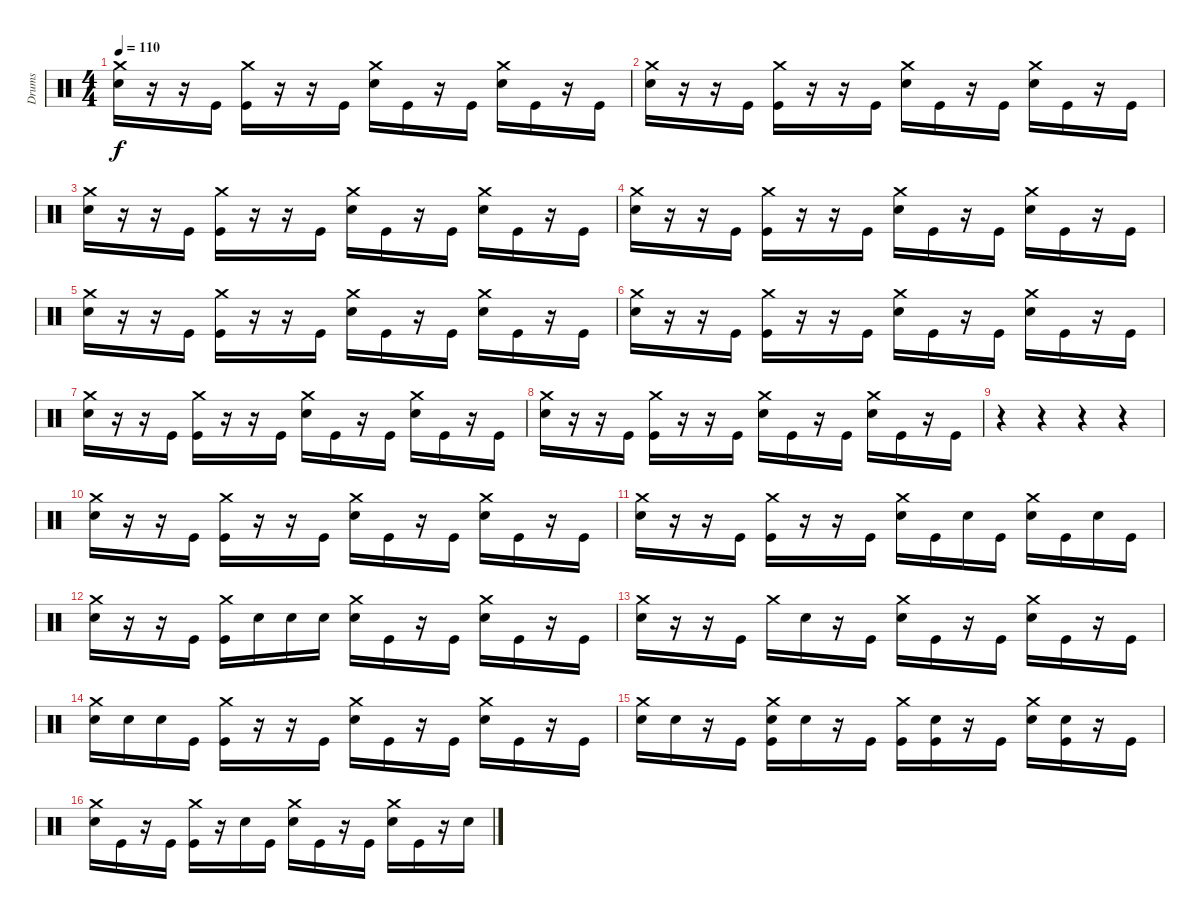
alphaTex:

\track ("Drums" "Drums") {instrument percussion}
\staff {score}
\articulation defaults
\ts (4 4)
\tempo 110
\clef neutral
\ks c
("Crash medium (hit)" "Electric Snare (hit)").16{dy f} r.16 r.16 "Kick (hit)".16 ("Crash medium (hit)" "Kick (hit)").16 r.16 r.16 "Kick (hit)".16 ("Crash medium (hit)" "Electric Snare (hit)").16 "Kick (hit)".16 r.16 "Kick (hit)".16 ("Crash medium (hit)" "Electric Snare (hit)").16 "Kick (hit)".16 r.16 "Kick (hit)".16 |
("Crash medium (hit)" "Electric Snare (hit)").16 r.16 r.16 "Kick (hit)".16 ("Crash medium (hit)" "Kick (hit)").16 r.16 r.16 "Kick (hit)".16 ("Crash medium (hit)" "Electric Snare (hit)").16 "Kick (hit)".16 r.16 "Kick (hit)".16 ("Crash medium (hit)" "Electric Snare (hit)").16 "Kick (hit)".16 r.16 "Kick (hit)".16 |
("Crash medium (hit)" "Electric Snare (hit)").16 r.16 r.16 "Kick (hit)".16 ("Crash medium (hit)" "Kick (hit)").16 r.16 r.16 "Kick (hit)".16 ("Crash medium (hit)" "Electric Snare (hit)").16 "Kick (hit)".16 r.16 "Kick (hit)".16 ("Crash medium (hit)" "Electric Snare (hit)").16 "Kick (hit)".16 r.16 "Kick (hit)".16 |
("Crash medium (hit)" "Electric Snare (hit)").16 r.16 r.16 "Kick (hit)".16 ("Crash medium (hit)" "Kick (hit)").16 r.16 r.16 "Kick (hit)".16 ("Crash medium (hit)" "Electric Snare (hit)").16 "Kick (hit)".16 r.16 "Kick (hit)".16 ("Crash medium (hit)" "Electric Snare (hit)").16 "Kick (hit)".16 r.16 "Kick (hit)".16 |
("Crash medium (hit)" "Electric Snare (hit)").16 r.16 r.16 "Kick (hit)".16 ("Crash medium (hit)" "Kick (hit)").16 r.16 r.16 "Kick (hit)".16 ("Crash medium (hit)" "Electric Snare (hit)").16 "Kick (hit)".16 r.16 "Kick (hit)".16 ("Crash medium (hit)" "Electric Snare (hit)").16 "Kick (hit)".16 r.16 "Kick (hit)".16 |
("Crash medium (hit)" "Electric Snare (hit)").16 r.16 r.16 "Kick (hit)".16 ("Crash medium (hit)" "Kick (hit)").16 r.16 r.16 "Kick (hit)".16 ("Crash medium (hit)" "Electric Snare (hit)").16 "Kick (hit)".16 r.16 "Kick (hit)".16 ("Crash medium (hit)" "Electric Snare (hit)").16 "Kick (hit)".16 r.16 "Kick (hit)".16 |
("Crash medium (hit)" "Electric Snare (hit)").16 r.16 r.16 "Kick (hit)".16 ("Crash medium (hit)" "Kick (hit)").16 r.16 r.16 "Kick (hit)".16 ("Crash medium (hit)" "Electric Snare (hit)").16 "Kick (hit)".16 r.16 "Kick (hit)".16 ("Crash medium (hit)" "Electric Snare (hit)").16 "Kick (hit)".16 r.16 "Kick (hit)".16 |
("Crash medium (hit)" "Electric Snare (hit)").16 r.16 r.16 "Kick (hit)".16 ("Crash medium (hit)" "Kick (hit)").16 r.16 r.16 "Kick (hit)".16 ("Crash medium (hit)" "Electric Snare (hit)").16 "Kick (hit)".16 r.16 "Kick (hit)".16 ("Crash medium (hit)" "Electric Snare (hit)").16 "Kick (hit)".16 r.16 "Kick (hit)".16 |
r.4 r.4 r.4 r.4 |
("Crash medium (hit)" "Electric Snare (hit)").16 r.16 r.16 "Kick (hit)".16 ("Crash medium (hit)" "Kick (hit)").16 r.16 r.16 "Kick (hit)".16 ("Crash medium (hit)" "Electric Snare (hit)").16 "Kick (hit)".16 r.16 "Kick (hit)".16 ("Crash medium (hit)" "Electric Snare (hit)").16 "Kick (hit)".16 r.16 "Kick (hit)".16 |
("Crash medium (hit)" "Electric Snare (hit)").16 r.16 r.16 "Kick (hit)".16 ("Crash medium (hit)" "Kick (hit)").16 r.16 r.16 "Kick (hit)".16 ("Crash medium (hit)" "Electric Snare (hit)").16 "Kick (hit)".16 "Electric Snare (hit)".16 "Kick (hit)".16 ("Crash medium (hit)" "Electric Snare (hit)").16 "Kick (hit)".16 "Electric Snare (hit)".16 "Kick (hit)".16 |
("Crash medium (hit)" "Electric Snare (hit)").16 r.16 r.16 "Kick (hit)".16 ("Crash medium (hit)" "Kick (hit)").16 "Electric Snare (hit)".16 "Electric Snare (hit)".16 "Electric Snare (hit)".16 ("Crash medium (hit)" "Electric Snare (hit)").16 "Kick (hit)".16 r.16 "Kick (hit)".16 ("Crash medium (hit)" "Electric Snare (hit)").16 "Kick (hit)".16 r.16 "Kick (hit)".16 |
("Crash medium (hit)" "Electric Snare (hit)").16 r.16 r.16 "Kick (hit)".16 "Crash medium (hit)".16 "Electric Snare (hit)".16 r.16 "Kick (hit)".16 ("Crash medium (hit)" "Electric Snare (hit)").16 "Kick (hit)".16 r.16 "Kick (hit)".16 ("Crash medium (hit)" "Electric Snare (hit)").16 "Kick (hit)".16 r.16 "Kick (hit)".16 |
("Crash medium (hit)" "Electric Snare (hit)").16 "Electric Snare (hit)".16 "Electric Snare (hit)".16 "Kick (hit)".16 ("Crash medium (hit)" "Kick (hit)").16 r.16 r.16 "Kick (hit)".16 ("Crash medium (hit)" "Electric Snare (hit)").16 "Kick (hit)".16 r.16 "Kick (hit)".16 ("Crash medium (hit)" "Electric Snare (hit)").16 "Kick (hit)".16 r.16 "Kick (hit)".16 |
("Crash medium (hit)" "Electric Snare (hit)").16 "Electric Snare (hit)".16 r.16 "Kick (hit)".16 ("Crash medium (hit)" "Electric Snare (hit)" "Kick (hit)").16 "Electric Snare (hit)".16 r.16 "Kick (hit)".16 ("Crash medium (hit)" "Kick (hit)").16 ("Electric Snare (hit)" "Kick (hit)").16 r.16 "Kick (hit)".16 ("Crash medium (hit)" "Electric Snare (hit)").16 ("Electric Snare (hit)" "Kick (hit)").16 r.16 "Kick (hit)".16 |
("Crash medium (hit)" "Electric Snare (hit)").16 "Kick (hit)".16 r.16 "Kick (hit)".16 ("Crash medium (hit)" "Kick (hit)").16 r.16 "Electric Snare (hit)".16 "Kick (hit)".16 ("Crash medium (hit)" "Electric Snare (hit)").16 "Kick (hit)".16 r.16 "Kick (hit)".16 ("Crash medium (hit)" "Electric Snare (hit)").16 "Kick (hit)".16 r.16 "Electric Snare (hit)".16
